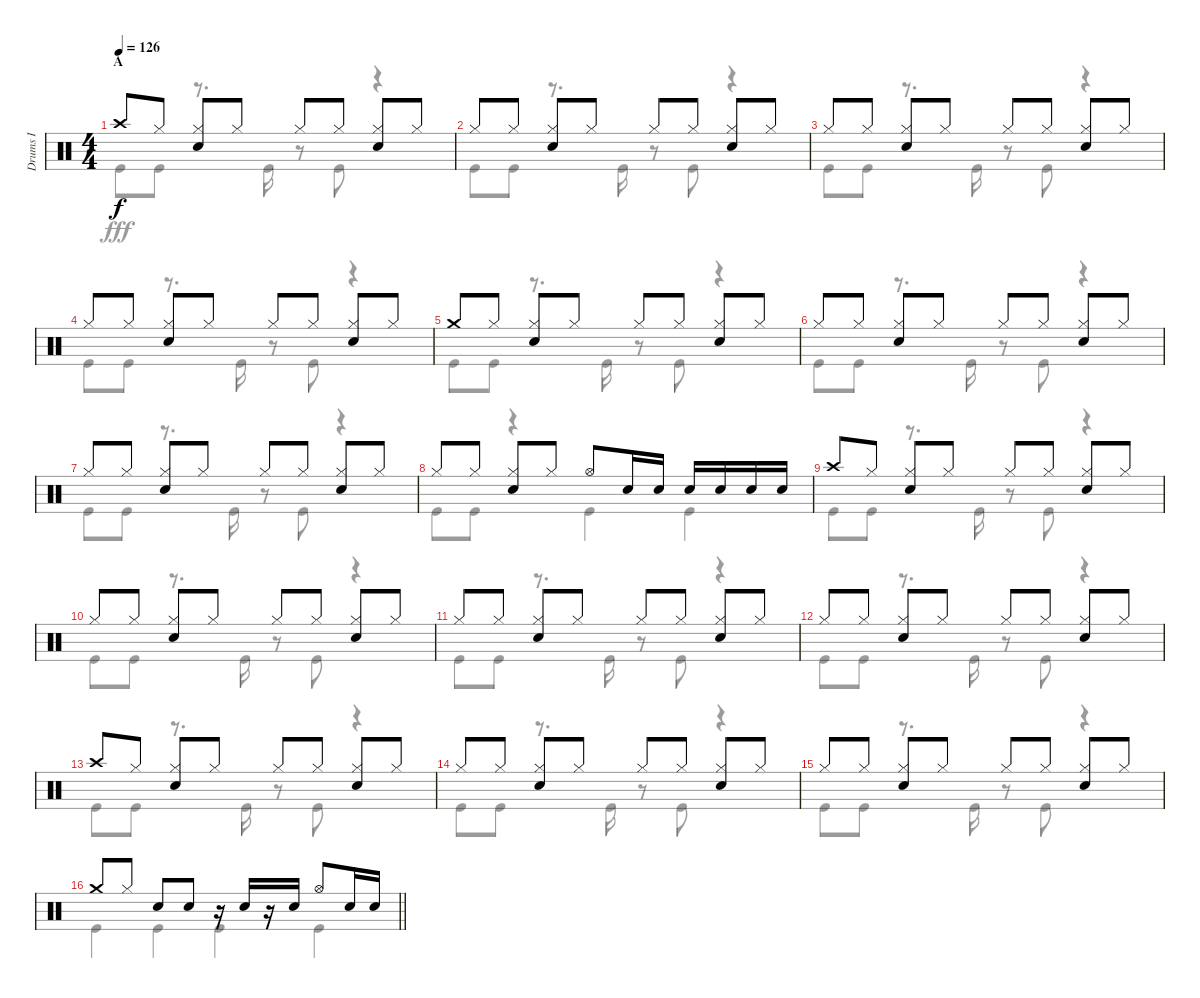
\track ("Drums I" "Drums I") {instrument percussion}
\staff {score}
\articulation defaults
\voice
\ts (4 4)
\section ("" "A")
\tempo 126
\clef neutral
\ks c "Crash high (hit)".8{dy f} "Hi-Hat (closed)".8
("Hi-Hat (closed)" "Snare (hit) 2").8 "Hi-Hat (closed)".8 "Hi-Hat (closed)".8 "Hi-Hat (closed)".8 ("Hi-Hat (closed)" "Snare (hit) 2").8 "Hi-Hat (closed)".8 |
"Hi-Hat (closed)".8 "Hi-Hat (closed)".8 ("Hi-Hat (closed)" "Snare (hit) 2").8 "Hi-Hat (closed)".8 "Hi-Hat (closed)".8 "Hi-Hat (closed)".8 ("Hi-Hat (closed)" "Snare (hit) 2").8 "Hi-Hat (closed)".8 |
"Hi-Hat (closed)".8 "Hi-Hat (closed)".8 ("Hi-Hat (closed)" "Snare (hit) 2").8 "Hi-Hat (closed)".8 "Hi-Hat (closed)".8 "Hi-Hat (closed)".8 ("Hi-Hat (closed)" "Snare (hit) 2").8 "Hi-Hat (closed)".8 |
"Hi-Hat (closed)".8 "Hi-Hat (closed)".8 ("Hi-Hat (closed)" "Snare (hit) 2").8 "Hi-Hat (closed)".8 "Hi-Hat (closed)".8 "Hi-Hat (closed)".8 ("Hi-Hat (closed)" "Snare (hit) 2").8 "Hi-Hat (closed)".8 |
"Crash medium (hit)".8 "Hi-Hat (closed)".8 ("Hi-Hat (closed)" "Snare (hit) 2").8 "Hi-Hat (closed)".8 "Hi-Hat (closed)".8 "Hi-Hat (closed)".8 ("Hi-Hat (closed)" "Snare (hit) 2").8 "Hi-Hat (closed)".8 |
"Hi-Hat (closed)".8 "Hi-Hat (closed)".8 ("Hi-Hat (closed)" "Snare (hit) 2").8 "Hi-Hat (closed)".8 "Hi-Hat (closed)".8 "Hi-Hat (closed)".8 ("Hi-Hat (closed)" "Snare (hit) 2").8 "Hi-Hat (closed)".8 |
"Hi-Hat (closed)".8 "Hi-Hat (closed)".8 ("Hi-Hat (closed)" "Snare (hit) 2").8 "Hi-Hat (closed)".8 "Hi-Hat (closed)".8 "Hi-Hat (closed)".8 ("Hi-Hat (closed)" "Snare (hit) 2").8 "Hi-Hat (closed)".8 |
"Hi-Hat (closed)".8 "Hi-Hat (closed)".8 ("Hi-Hat (closed)" "Snare (hit) 2").8 "Hi-Hat (closed)".8 "Hi-Hat (open)".8 "Snare (hit) 2".16 "Snare (hit) 2".16 "Snare (hit) 2".16 "Snare (hit) 2".16 "Snare (hit) 2".16 "Snare (hit) 2".16 |
"Crash high (hit)".8 "Hi-Hat (closed)".8 ("Hi-Hat (closed)" "Snare (hit) 2").8 "Hi-Hat (closed)".8 "Hi-Hat (closed)".8 "Hi-Hat (closed)".8 ("Hi-Hat (closed)" "Snare (hit) 2").8 "Hi-Hat (closed)".8 |
"Hi-Hat (closed)".8 "Hi-Hat (closed)".8 ("Hi-Hat (closed)" "Snare (hit) 2").8 "Hi-Hat (closed)".8 "Hi-Hat (closed)".8 "Hi-Hat (closed)".8 ("Hi-Hat (closed)" "Snare (hit) 2").8 "Hi-Hat (closed)".8 |
"Hi-Hat (closed)".8 "Hi-Hat (closed)".8 ("Hi-Hat (closed)" "Snare (hit) 2").8 "Hi-Hat (closed)".8 "Hi-Hat (closed)".8 "Hi-Hat (closed)".8 ("Hi-Hat (closed)" "Snare (hit) 2").8 "Hi-Hat (closed)".8 |
"Hi-Hat (closed)".8 "Hi-Hat (closed)".8 ("Hi-Hat (closed)" "Snare (hit) 2").8 "Hi-Hat (closed)".8 "Hi-Hat (closed)".8 "Hi-Hat (closed)".8 ("Hi-Hat (closed)" "Snare (hit) 2").8 "Hi-Hat (closed)".8 |
"Crash high (hit)".8 "Hi-Hat (closed)".8 ("Hi-Hat (closed)" "Snare (hit) 2").8 "Hi-Hat (closed)".8 "Hi-Hat (closed)".8 "Hi-Hat (closed)".8 ("Hi-Hat (closed)" "Snare (hit) 2").8 "Hi-Hat (closed)".8 |
"Hi-Hat (closed)".8 "Hi-Hat (closed)".8 ("Hi-Hat (closed)" "Snare (hit) 2").8 "Hi-Hat (closed)".8 "Hi-Hat (closed)".8 "Hi-Hat (closed)".8 ("Hi-Hat (closed)" "Snare (hit) 2").8 "Hi-Hat (closed)".8 |
"Hi-Hat (closed)".8 "Hi-Hat (closed)".8 ("Hi-Hat (closed)" "Snare (hit) 2").8 "Hi-Hat (closed)".8 "Hi-Hat (closed)".8 "Hi-Hat (closed)".8 ("Hi-Hat (closed)" "Snare (hit) 2").8 "Hi-Hat (closed)".8 |
\barLineRight lightlight "Crash medium (hit)".8 "Hi-Hat (closed)".8 "Snare (hit) 2".8 "Snare (hit) 2".8
r.16 "Snare (hit) 2".16 r.16 "Snare (hit) 2".16 "Hi-Hat (open)".8 "Snare (hit) 2".16 "Snare (hit) 2".16
\voice
\clef neutral
\ottava regular
\simile none
\ks c "Kick (hit)".8{dy fff} "Kick (hit)".8
r.8{d} "Kick (hit)".16 r.8 "Kick (hit)".8 r.4 |
"Kick (hit)".8 "Kick (hit)".8 r.8{d} "Kick (hit)".16 r.8 "Kick (hit)".8 r.4 |
"Kick (hit)".8 "Kick (hit)".8 r.8{d} "Kick (hit)".16 r.8 "Kick (hit)".8 r.4 |
"Kick (hit)".8 "Kick (hit)".8 r.8{d} "Kick (hit)".16 r.8 "Kick (hit)".8 r.4 |
"Kick (hit)".8 "Kick (hit)".8 r.8{d} "Kick (hit)".16 r.8 "Kick (hit)".8 r.4 |
"Kick (hit)".8 "Kick (hit)".8 r.8{d} "Kick (hit)".16 r.8 "Kick (hit)".8 r.4 |
"Kick (hit)".8 "Kick (hit)".8 r.8{d} "Kick (hit)".16 r.8 "Kick (hit)".8 r.4 |
"Kick (hit)".8 "Kick (hit)".8 r.4 "Kick (hit)".4 "Kick (hit)".4 |
"Kick (hit)".8 "Kick (hit)".8 r.8{d} "Kick (hit)".16 r.8 "Kick (hit)".8 r.4 |
"Kick (hit)".8 "Kick (hit)".8 r.8{d} "Kick (hit)".16 r.8 "Kick (hit)".8 r.4 |
"Kick (hit)".8 "Kick (hit)".8 r.8{d} "Kick (hit)".16 r.8 "Kick (hit)".8 r.4 |
"Kick (hit)".8 "Kick (hit)".8 r.8{d} "Kick (hit)".16 r.8 "Kick (hit)".8 r.4 |
"Kick (hit)".8 "Kick (hit)".8 r.8{d} "Kick (hit)".16 r.8 "Kick (hit)".8 r.4 |
"Kick (hit)".8 "Kick (hit)".8 r.8{d} "Kick (hit)".16 r.8 "Kick (hit)".8 r.4 |
"Kick (hit)".8 "Kick (hit)".8 r.8{d} "Kick (hit)".16 r.8 "Kick (hit)".8 r.4 |
\barLineRight lightlight "Kick (hit)".4 "Kick (hit)".4 "Kick (hit)".4 "Kick (hit)".4
